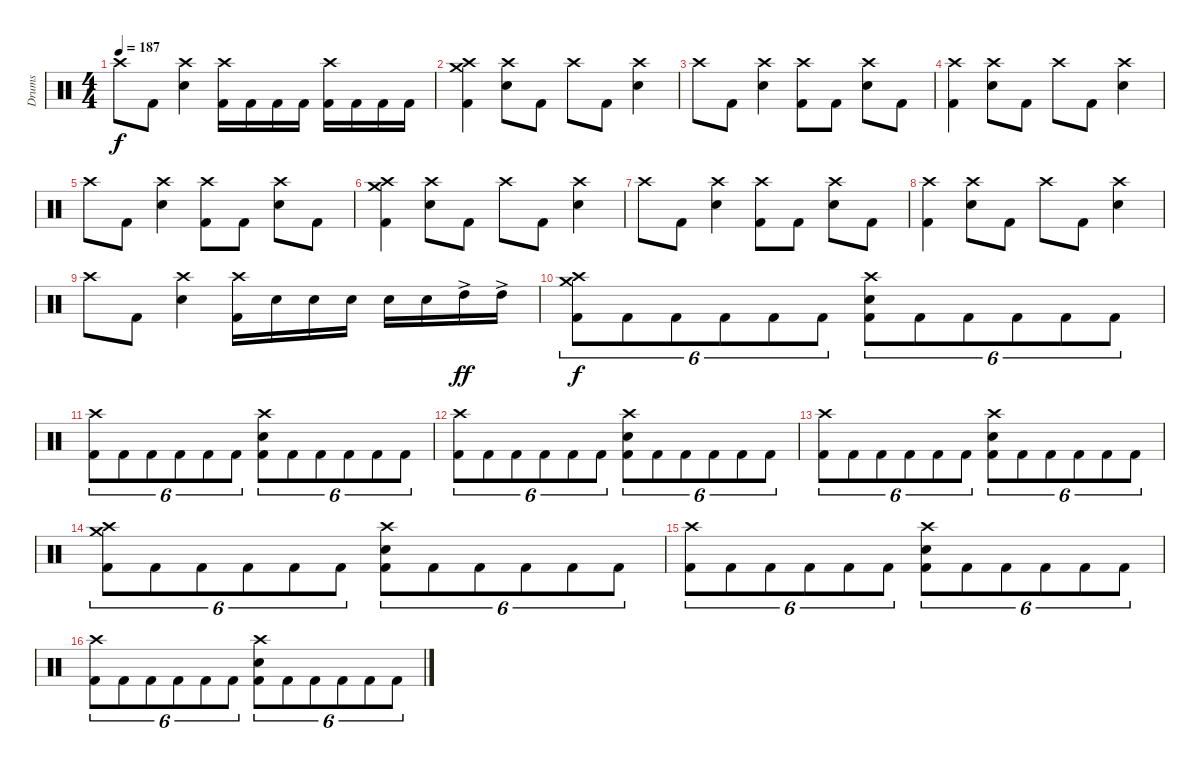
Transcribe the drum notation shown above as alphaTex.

\track ("Drums" "Drums") {instrument percussion}
\staff {score}
\articulation defaults
\ts (4 4)
\tempo 187
\clef neutral
\ks c "Crash high (hit)".8{dy f} "Kick (hit) 2".8
("Crash high (hit)" "Snare (hit) 2").4 ("Crash high (hit)" "Kick (hit) 2").16 "Kick (hit) 2".16 "Kick (hit) 2".16 "Kick (hit) 2".16 ("Crash high (hit)" "Kick (hit) 2").16 "Kick (hit) 2".16 "Kick (hit) 2".16 "Kick (hit) 2".16 |
("Crash high (hit)" "Crash medium (hit)" "Kick (hit) 2").4 ("Snare (hit) 2" "Crash high (hit)").8 "Kick (hit) 2".8 "Crash high (hit)".8 "Kick (hit) 2".8 ("Crash high (hit)" "Snare (hit) 2").4 |
"Crash high (hit)".8 "Kick (hit) 2".8 ("Crash high (hit)" "Snare (hit) 2").4 ("Crash high (hit)" "Kick (hit) 2").8 "Kick (hit) 2".8 ("Crash high (hit)" "Snare (hit) 2").8 "Kick (hit) 2".8 |
("Crash high (hit)" "Kick (hit) 2").4 ("Snare (hit) 2" "Crash high (hit)").8 "Kick (hit) 2".8 "Crash high (hit)".8 "Kick (hit) 2".8 ("Crash high (hit)" "Snare (hit) 2").4 |
"Crash high (hit)".8 "Kick (hit) 2".8 ("Crash high (hit)" "Snare (hit) 2").4 ("Crash high (hit)" "Kick (hit) 2").8 "Kick (hit) 2".8 ("Crash high (hit)" "Snare (hit) 2").8 "Kick (hit) 2".8 |
("Crash high (hit)" "Crash medium (hit)" "Kick (hit) 2").4 ("Snare (hit) 2" "Crash high (hit)").8 "Kick (hit) 2".8 "Crash high (hit)".8 "Kick (hit) 2".8 ("Crash high (hit)" "Snare (hit) 2").4 |
"Crash high (hit)".8 "Kick (hit) 2".8 ("Crash high (hit)" "Snare (hit) 2").4 ("Crash high (hit)" "Kick (hit) 2").8 "Kick (hit) 2".8 ("Crash high (hit)" "Snare (hit) 2").8 "Kick (hit) 2".8 |
("Crash high (hit)" "Kick (hit) 2").4 ("Snare (hit) 2" "Crash high (hit)").8 "Kick (hit) 2".8 "Crash high (hit)".8 "Kick (hit) 2".8 ("Crash high (hit)" "Snare (hit) 2").4 |
"Crash high (hit)".8 "Kick (hit) 2".8 ("Crash high (hit)" "Snare (hit) 2").4 ("Crash high (hit)" "Kick (hit) 2").16 "Snare (hit) 2".16 "Snare (hit) 2".16 "Snare (hit) 2".16 "Snare (hit) 2".16 "Snare (hit) 2".16 "High Tom (hit)"{ac}.16{dy ff} "High Tom (hit)"{ac}.16 |
("Crash high (hit)" "Crash medium (hit)" "Kick (hit) 2").8{tu (6 4) dy f} "Kick (hit) 2".8{tu (6 4)} "Kick (hit) 2".8{tu (6 4)} "Kick (hit) 2".8{tu (6 4)} "Kick (hit) 2".8{tu (6 4)} "Kick (hit) 2".8{tu (6 4)} ("Crash high (hit)" "Snare (hit) 2" "Kick (hit) 2").8{tu (6 4)} "Kick (hit) 2".8{tu (6 4)} "Kick (hit) 2".8{tu (6 4)} "Kick (hit) 2".8{tu (6 4)} "Kick (hit) 2".8{tu (6 4)} "Kick (hit) 2".8{tu (6 4)} |
("Crash high (hit)" "Kick (hit) 2").8{tu (6 4)} "Kick (hit) 2".8{tu (6 4)} "Kick (hit) 2".8{tu (6 4)} "Kick (hit) 2".8{tu (6 4)} "Kick (hit) 2".8{tu (6 4)} "Kick (hit) 2".8{tu (6 4)} ("Crash high (hit)" "Snare (hit) 2" "Kick (hit) 2").8{tu (6 4)} "Kick (hit) 2".8{tu (6 4)} "Kick (hit) 2".8{tu (6 4)} "Kick (hit) 2".8{tu (6 4)} "Kick (hit) 2".8{tu (6 4)} "Kick (hit) 2".8{tu (6 4)} |
("Crash high (hit)" "Kick (hit) 2").8{tu (6 4)} "Kick (hit) 2".8{tu (6 4)} "Kick (hit) 2".8{tu (6 4)} "Kick (hit) 2".8{tu (6 4)} "Kick (hit) 2".8{tu (6 4)} "Kick (hit) 2".8{tu (6 4)} ("Crash high (hit)" "Snare (hit) 2" "Kick (hit) 2").8{tu (6 4)} "Kick (hit) 2".8{tu (6 4)} "Kick (hit) 2".8{tu (6 4)} "Kick (hit) 2".8{tu (6 4)} "Kick (hit) 2".8{tu (6 4)} "Kick (hit) 2".8{tu (6 4)} |
("Crash high (hit)" "Kick (hit) 2").8{tu (6 4)} "Kick (hit) 2".8{tu (6 4)} "Kick (hit) 2".8{tu (6 4)} "Kick (hit) 2".8{tu (6 4)} "Kick (hit) 2".8{tu (6 4)} "Kick (hit) 2".8{tu (6 4)} ("Crash high (hit)" "Snare (hit) 2" "Kick (hit) 2").8{tu (6 4)} "Kick (hit) 2".8{tu (6 4)} "Kick (hit) 2".8{tu (6 4)} "Kick (hit) 2".8{tu (6 4)} "Kick (hit) 2".8{tu (6 4)} "Kick (hit) 2".8{tu (6 4)} |
("Crash high (hit)" "Crash medium (hit)" "Kick (hit) 2").8{tu (6 4)} "Kick (hit) 2".8{tu (6 4)} "Kick (hit) 2".8{tu (6 4)} "Kick (hit) 2".8{tu (6 4)} "Kick (hit) 2".8{tu (6 4)} "Kick (hit) 2".8{tu (6 4)} ("Crash high (hit)" "Snare (hit) 2" "Kick (hit) 2").8{tu (6 4)} "Kick (hit) 2".8{tu (6 4)} "Kick (hit) 2".8{tu (6 4)} "Kick (hit) 2".8{tu (6 4)} "Kick (hit) 2".8{tu (6 4)} "Kick (hit) 2".8{tu (6 4)} |
("Crash high (hit)" "Kick (hit) 2").8{tu (6 4)} "Kick (hit) 2".8{tu (6 4)} "Kick (hit) 2".8{tu (6 4)} "Kick (hit) 2".8{tu (6 4)} "Kick (hit) 2".8{tu (6 4)} "Kick (hit) 2".8{tu (6 4)} ("Crash high (hit)" "Snare (hit) 2" "Kick (hit) 2").8{tu (6 4)} "Kick (hit) 2".8{tu (6 4)} "Kick (hit) 2".8{tu (6 4)} "Kick (hit) 2".8{tu (6 4)} "Kick (hit) 2".8{tu (6 4)} "Kick (hit) 2".8{tu (6 4)} |
("Crash high (hit)" "Kick (hit) 2").8{tu (6 4)} "Kick (hit) 2".8{tu (6 4)} "Kick (hit) 2".8{tu (6 4)} "Kick (hit) 2".8{tu (6 4)} "Kick (hit) 2".8{tu (6 4)} "Kick (hit) 2".8{tu (6 4)} ("Crash high (hit)" "Snare (hit) 2" "Kick (hit) 2").8{tu (6 4)} "Kick (hit) 2".8{tu (6 4)} "Kick (hit) 2".8{tu (6 4)} "Kick (hit) 2".8{tu (6 4)} "Kick (hit) 2".8{tu (6 4)} "Kick (hit) 2".8{tu (6 4)}
